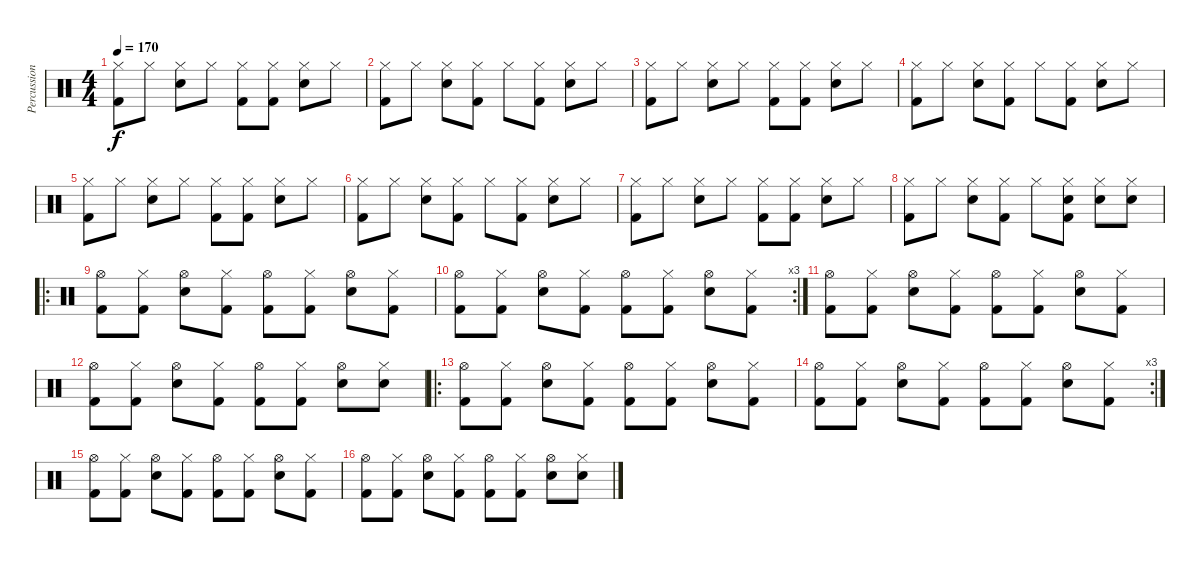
\track ("Percussion" "Percussion") {instrument percussion}
\staff {score}
\articulation defaults
\ts (4 4)
\tempo 170
\clef neutral
\ks c
("Hi-Hat (closed)" "Kick (hit) 2").8{dy f} "Hi-Hat (closed)".8 ("Hi-Hat (closed)" "Electric Snare (hit)").8 "Hi-Hat (closed)".8 ("Hi-Hat (closed)" "Kick (hit) 2").8 ("Hi-Hat (closed)" "Kick (hit) 2").8 ("Hi-Hat (closed)" "Electric Snare (hit)").8 "Hi-Hat (closed)".8 |
("Hi-Hat (closed)" "Kick (hit) 2").8 "Hi-Hat (closed)".8 ("Hi-Hat (closed)" "Electric Snare (hit)").8 ("Hi-Hat (closed)" "Kick (hit) 2").8 "Hi-Hat (closed)".8 ("Hi-Hat (closed)" "Kick (hit) 2").8 ("Hi-Hat (closed)" "Electric Snare (hit)").8 "Hi-Hat (closed)".8 |
("Hi-Hat (closed)" "Kick (hit) 2").8 "Hi-Hat (closed)".8 ("Hi-Hat (closed)" "Electric Snare (hit)").8 "Hi-Hat (closed)".8 ("Hi-Hat (closed)" "Kick (hit) 2").8 ("Hi-Hat (closed)" "Kick (hit) 2").8 ("Hi-Hat (closed)" "Electric Snare (hit)").8 "Hi-Hat (closed)".8 |
("Hi-Hat (closed)" "Kick (hit) 2").8 "Hi-Hat (closed)".8 ("Hi-Hat (closed)" "Electric Snare (hit)").8 ("Hi-Hat (closed)" "Kick (hit) 2").8 "Hi-Hat (closed)".8 ("Hi-Hat (closed)" "Kick (hit) 2").8 ("Hi-Hat (closed)" "Electric Snare (hit)").8 "Hi-Hat (closed)".8 |
("Hi-Hat (closed)" "Kick (hit) 2").8 "Hi-Hat (closed)".8 ("Hi-Hat (closed)" "Electric Snare (hit)").8 "Hi-Hat (closed)".8 ("Hi-Hat (closed)" "Kick (hit) 2").8 ("Hi-Hat (closed)" "Kick (hit) 2").8 ("Hi-Hat (closed)" "Electric Snare (hit)").8 "Hi-Hat (closed)".8 |
("Hi-Hat (closed)" "Kick (hit) 2").8 "Hi-Hat (closed)".8 ("Hi-Hat (closed)" "Electric Snare (hit)").8 ("Hi-Hat (closed)" "Kick (hit) 2").8 "Hi-Hat (closed)".8 ("Hi-Hat (closed)" "Kick (hit) 2").8 ("Hi-Hat (closed)" "Electric Snare (hit)").8 "Hi-Hat (closed)".8 |
("Hi-Hat (closed)" "Kick (hit) 2").8 "Hi-Hat (closed)".8 ("Hi-Hat (closed)" "Electric Snare (hit)").8 "Hi-Hat (closed)".8 ("Hi-Hat (closed)" "Kick (hit) 2").8 ("Hi-Hat (closed)" "Kick (hit) 2").8 ("Hi-Hat (closed)" "Electric Snare (hit)").8 "Hi-Hat (closed)".8 |
("Hi-Hat (closed)" "Kick (hit) 2").8 "Hi-Hat (closed)".8 ("Hi-Hat (closed)" "Electric Snare (hit)").8 ("Hi-Hat (closed)" "Kick (hit) 2").8 "Hi-Hat (closed)".8 ("Hi-Hat (closed)" "Electric Snare (hit)" "Kick (hit) 2").8 ("Hi-Hat (closed)" "Electric Snare (hit)").8 ("Hi-Hat (closed)" "Electric Snare (hit)").8 |
\ro
("Hi-Hat (open)" "Kick (hit) 2").8 ("Hi-Hat (closed)" "Kick (hit) 2").8 ("Hi-Hat (open)" "Electric Snare (hit)").8 ("Hi-Hat (closed)" "Kick (hit) 2").8 ("Hi-Hat (open)" "Kick (hit) 2").8 ("Hi-Hat (closed)" "Kick (hit) 2").8 ("Hi-Hat (open)" "Electric Snare (hit)").8 ("Hi-Hat (closed)" "Kick (hit) 2").8 |
\rc 3
("Hi-Hat (open)" "Kick (hit) 2").8 ("Hi-Hat (closed)" "Kick (hit) 2").8 ("Hi-Hat (open)" "Electric Snare (hit)").8 ("Hi-Hat (closed)" "Kick (hit) 2").8 ("Hi-Hat (open)" "Kick (hit) 2").8 ("Hi-Hat (closed)" "Kick (hit) 2").8 ("Hi-Hat (open)" "Electric Snare (hit)").8 ("Hi-Hat (closed)" "Kick (hit) 2").8 |
("Hi-Hat (open)" "Kick (hit) 2").8 ("Hi-Hat (closed)" "Kick (hit) 2").8 ("Hi-Hat (open)" "Electric Snare (hit)").8 ("Hi-Hat (closed)" "Kick (hit) 2").8 ("Hi-Hat (open)" "Kick (hit) 2").8 ("Hi-Hat (closed)" "Kick (hit) 2").8 ("Hi-Hat (open)" "Electric Snare (hit)").8 ("Hi-Hat (closed)" "Kick (hit) 2").8 |
("Hi-Hat (open)" "Kick (hit) 2").8 ("Hi-Hat (closed)" "Kick (hit) 2").8 ("Hi-Hat (open)" "Electric Snare (hit)").8 ("Hi-Hat (closed)" "Kick (hit) 2").8 ("Hi-Hat (open)" "Kick (hit) 2").8 ("Hi-Hat (closed)" "Kick (hit) 2").8 ("Hi-Hat (open)" "Electric Snare (hit)").8 ("Hi-Hat (closed)" "Snare (hit)").8 |
\ro
("Hi-Hat (open)" "Kick (hit) 2").8 ("Hi-Hat (closed)" "Kick (hit) 2").8 ("Hi-Hat (open)" "Electric Snare (hit)").8 ("Hi-Hat (closed)" "Kick (hit) 2").8 ("Hi-Hat (open)" "Kick (hit) 2").8 ("Hi-Hat (closed)" "Kick (hit) 2").8 ("Hi-Hat (open)" "Electric Snare (hit)").8 ("Hi-Hat (closed)" "Kick (hit) 2").8 |
\rc 3
("Hi-Hat (open)" "Kick (hit) 2").8 ("Hi-Hat (closed)" "Kick (hit) 2").8 ("Hi-Hat (open)" "Electric Snare (hit)").8 ("Hi-Hat (closed)" "Kick (hit) 2").8 ("Hi-Hat (open)" "Kick (hit) 2").8 ("Hi-Hat (closed)" "Kick (hit) 2").8 ("Hi-Hat (open)" "Electric Snare (hit)").8 ("Hi-Hat (closed)" "Kick (hit) 2").8 |
("Hi-Hat (open)" "Kick (hit) 2").8 ("Hi-Hat (closed)" "Kick (hit) 2").8 ("Hi-Hat (open)" "Electric Snare (hit)").8 ("Hi-Hat (closed)" "Kick (hit) 2").8 ("Hi-Hat (open)" "Kick (hit) 2").8 ("Hi-Hat (closed)" "Kick (hit) 2").8 ("Hi-Hat (open)" "Electric Snare (hit)").8 ("Hi-Hat (closed)" "Kick (hit) 2").8 |
("Hi-Hat (open)" "Kick (hit) 2").8 ("Hi-Hat (closed)" "Kick (hit) 2").8 ("Hi-Hat (open)" "Electric Snare (hit)").8 ("Hi-Hat (closed)" "Kick (hit) 2").8 ("Hi-Hat (open)" "Kick (hit) 2").8 ("Hi-Hat (closed)" "Kick (hit) 2").8 ("Hi-Hat (open)" "Electric Snare (hit)").8 ("Hi-Hat (closed)" "Snare (hit)").8
